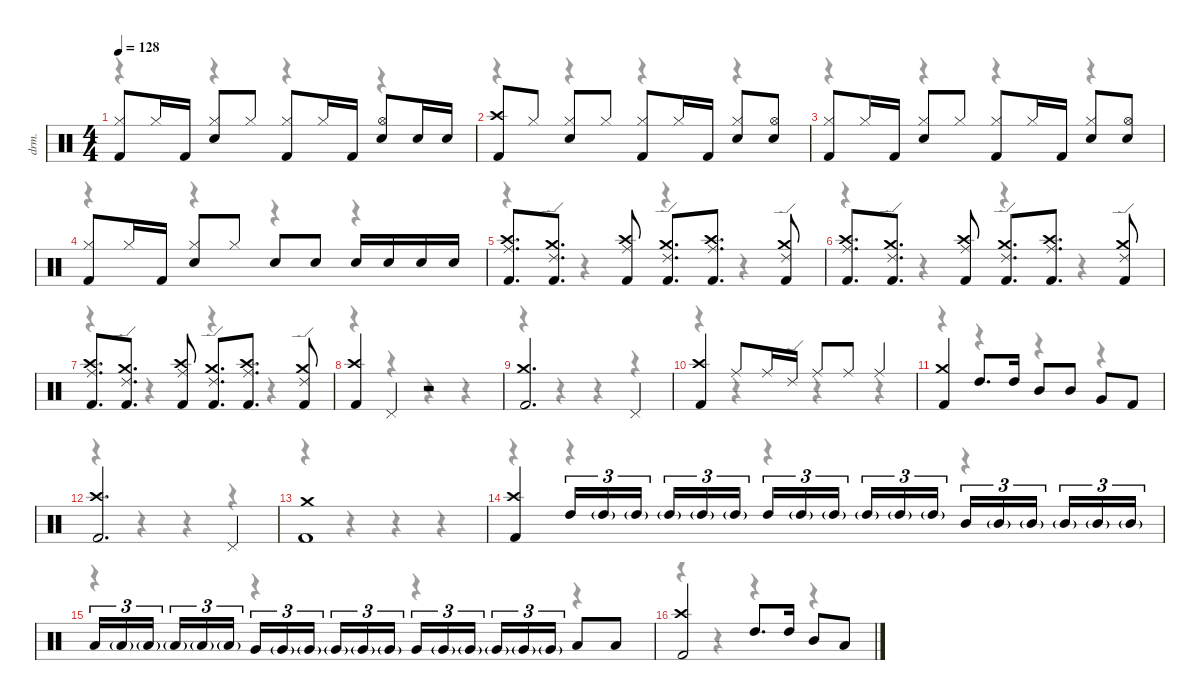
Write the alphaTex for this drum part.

\defaultSystemsLayout 4
\hideDynamics
\bracketExtendMode nobrackets
\track ("Drums" "drm.") {instrument percussion}
\staff {score}
\articulation defaults
\voice
\ts (4 4)
\tempo 128
\clef neutral
\ks c
("Kick (hit) 2" "Hi-Hat (closed)").8{dy fff} "Hi-Hat (closed)".16{dy p} "Kick (hit) 2".16{dy fff} ("Snare (hit) 2" "Hi-Hat (closed)").8 "Hi-Hat (closed)".8{dy p} ("Kick (hit) 2" "Hi-Hat (closed)").8{dy fff} "Hi-Hat (closed)".16{dy p} "Kick (hit) 2".16{dy fff} ("Snare (hit) 2" "Hi-Hat (open)").8 "Snare (hit) 2".16 "Snare (hit) 2".16 |
("Kick (hit) 2" "Crash high (hit)").8 "Hi-Hat (closed)".8{dy p} ("Snare (hit) 2" "Hi-Hat (closed)").8{dy fff} "Hi-Hat (closed)".8{dy p} ("Kick (hit) 2" "Hi-Hat (closed)").8{dy fff} "Hi-Hat (closed)".16{dy p} "Kick (hit) 2".16{dy fff} ("Snare (hit) 2" "Hi-Hat (closed)").8 ("Snare (hit) 2" "Hi-Hat (open)").8 |
("Kick (hit) 2" "Hi-Hat (closed)").8 "Hi-Hat (closed)".16{dy p} "Kick (hit) 2".16{dy fff} ("Snare (hit) 2" "Hi-Hat (closed)").8 "Hi-Hat (closed)".8{dy p} ("Kick (hit) 2" "Hi-Hat (closed)").8{dy fff} "Hi-Hat (closed)".16{dy p} "Kick (hit) 2".16{dy fff} ("Snare (hit) 2" "Hi-Hat (closed)").8 ("Snare (hit) 2" "Hi-Hat (open)").8 |
("Kick (hit) 2" "Hi-Hat (closed)").8 "Hi-Hat (closed)".16{dy p} "Kick (hit) 2".16{dy fff} ("Snare (hit) 2" "Hi-Hat (closed)").8 "Hi-Hat (closed)".8{dy p} "Snare (hit) 2".8{dy fff} "Snare (hit) 2".8 "Snare (hit) 2".16 "Snare (hit) 2".16 "Snare (hit) 2".16 "Snare (hit) 2".16 |
("Kick (hit) 2" "Ride (middle)" "Crash high (hit)").8{d} ("Kick (hit) 2" "Ride (edge) 2" "Crash medium (hit)").8{d} ("Kick (hit) 2" "Ride (middle)" "Crash high (hit)").8 ("Kick (hit) 2" "Ride (edge) 2" "Crash medium (hit)").8{d} ("Kick (hit) 2" "Ride (middle)" "Crash high (hit)").8{d} ("Kick (hit) 2" "Ride (edge) 2" "Crash medium (hit)").8 |
("Kick (hit) 2" "Ride (middle)" "Crash high (hit)").8{d} ("Kick (hit) 2" "Ride (edge) 2" "Crash medium (hit)").8{d} ("Kick (hit) 2" "Ride (middle)" "Crash high (hit)").8 ("Kick (hit) 2" "Ride (edge) 2" "Crash medium (hit)").8{d} ("Kick (hit) 2" "Ride (middle)" "Crash high (hit)").8{d} ("Kick (hit) 2" "Ride (edge) 2" "Crash medium (hit)").8 |
("Kick (hit) 2" "Ride (middle)" "Crash high (hit)").8{d} ("Kick (hit) 2" "Ride (edge) 2" "Crash medium (hit)").8{d} ("Kick (hit) 2" "Ride (middle)" "Crash high (hit)").8 ("Kick (hit) 2" "Ride (edge) 2" "Crash medium (hit)").8{d} ("Kick (hit) 2" "Ride (middle)" "Crash high (hit)").8{d} ("Kick (hit) 2" "Ride (edge) 2" "Crash medium (hit)").8 |
("Kick (hit) 2" "Crash high (hit)").4 "Pedal Hi-Hat (hit)".4{dy p} r.2 |
("Kick (hit) 2" "Crash medium (hit)").2{d dy fff} "Pedal Hi-Hat (hit)".4{dy p} |
("Kick (hit) 2" "Crash high (hit)").4{dy fff} "Ride (middle)".8{dy mp} "Ride (middle)".16 "Ride (edge) 2".16 "Ride (middle)".8 "Ride (middle)".8 "Ride (middle)".4{dy mf} |
("Kick (hit) 2" "Crash medium (hit)").4{dy fff} "High Tom (hit)".8{d} "High Tom (hit)".16 "Mid Tom (hit)".8 "Mid Tom (hit)".8 "Very Low Tom (hit)".8 "Kick (hit) 2".8{dy f} |
("Kick (hit) 2" "Crash high (hit)").2{d dy fff} "Pedal Hi-Hat (hit)".4{dy p} |
("Kick (hit) 2" "Crash medium (hit)").1{dy fff} |
("Kick (hit) 2" "Crash high (hit)").4 "High Tom (hit)".16{tu (3 2)} "High Tom (hit)"{g}.16{tu (3 2) dy f} "High Tom (hit)"{g}.16{tu (3 2)} "High Tom (hit)"{g}.16{tu (3 2)} "High Tom (hit)"{g}.16{tu (3 2)} "High Tom (hit)"{g}.16{tu (3 2)} "High Tom (hit)".16{tu (3 2) dy fff} "High Tom (hit)"{g}.16{tu (3 2) dy f} "High Tom (hit)"{g}.16{tu (3 2)} "High Tom (hit)"{g}.16{tu (3 2)} "High Tom (hit)"{g}.16{tu (3 2)} "High Tom (hit)"{g}.16{tu (3 2)} "Mid Tom (hit)".16{tu (3 2) dy fff} "Mid Tom (hit)"{g}.16{tu (3 2) dy f} "Mid Tom (hit)"{g}.16{tu (3 2)} "Mid Tom (hit)"{g}.16{tu (3 2)} "Mid Tom (hit)"{g}.16{tu (3 2)} "Mid Tom (hit)"{g}.16{tu (3 2)} |
"Low Tom (hit)".16{tu (3 2) dy fff} "Low Tom (hit)"{g}.16{tu (3 2) dy f} "Low Tom (hit)"{g}.16{tu (3 2)} "Low Tom (hit)"{g}.16{tu (3 2)} "Low Tom (hit)"{g}.16{tu (3 2)} "Low Tom (hit)"{g}.16{tu (3 2)} "Very Low Tom (hit)".16{tu (3 2) dy fff} "Very Low Tom (hit)"{g}.16{tu (3 2) dy f} "Very Low Tom (hit)"{g}.16{tu (3 2)} "Very Low Tom (hit)"{g}.16{tu (3 2)} "Very Low Tom (hit)"{g}.16{tu (3 2)} "Very Low Tom (hit)"{g}.16{tu (3 2)} "Very Low Tom (hit)".16{tu (3 2) dy fff} "Very Low Tom (hit)"{g}.16{tu (3 2) dy f} "Very Low Tom (hit)"{g}.16{tu (3 2)} "Very Low Tom (hit)"{g}.16{tu (3 2)} "Very Low Tom (hit)"{g}.16{tu (3 2)} "Very Low Tom (hit)"{g}.16{tu (3 2)} "Low Floor Tom (hit)".8{dy fff} "Low Floor Tom (hit)".8 |
("Kick (hit) 2" "Crash high (hit)").2 "High Tom (hit)".8{d} "High Tom (hit)".16 "Mid Tom (hit)".8 "Low Tom (hit)".8
\voice
\clef neutral
\ottava regular
\simile none
\ks c
r.4{dy mf} r.4 r.4 r.4 |
r.4 r.4 r.4 r.4 |
r.4 r.4 r.4 r.4 |
r.4 r.4 r.4 r.4 |
r.4 r.4 r.4 r.4 |
r.4 r.4 r.4 r.4 |
r.4 r.4 r.4 r.4 |
r.4 r.4 r.4 r.4 |
r.4 r.4 r.4 r.4 |
r.4 r.4 r.4 r.4 |
r.4 r.4 r.4 r.4 |
r.4 r.4 r.4 r.4 |
r.4 r.4 r.4 r.4 |
r.4 r.4 r.4 r.4 |
r.4 r.4 r.4 r.4 |
r.4 r.4 r.4 r.4
